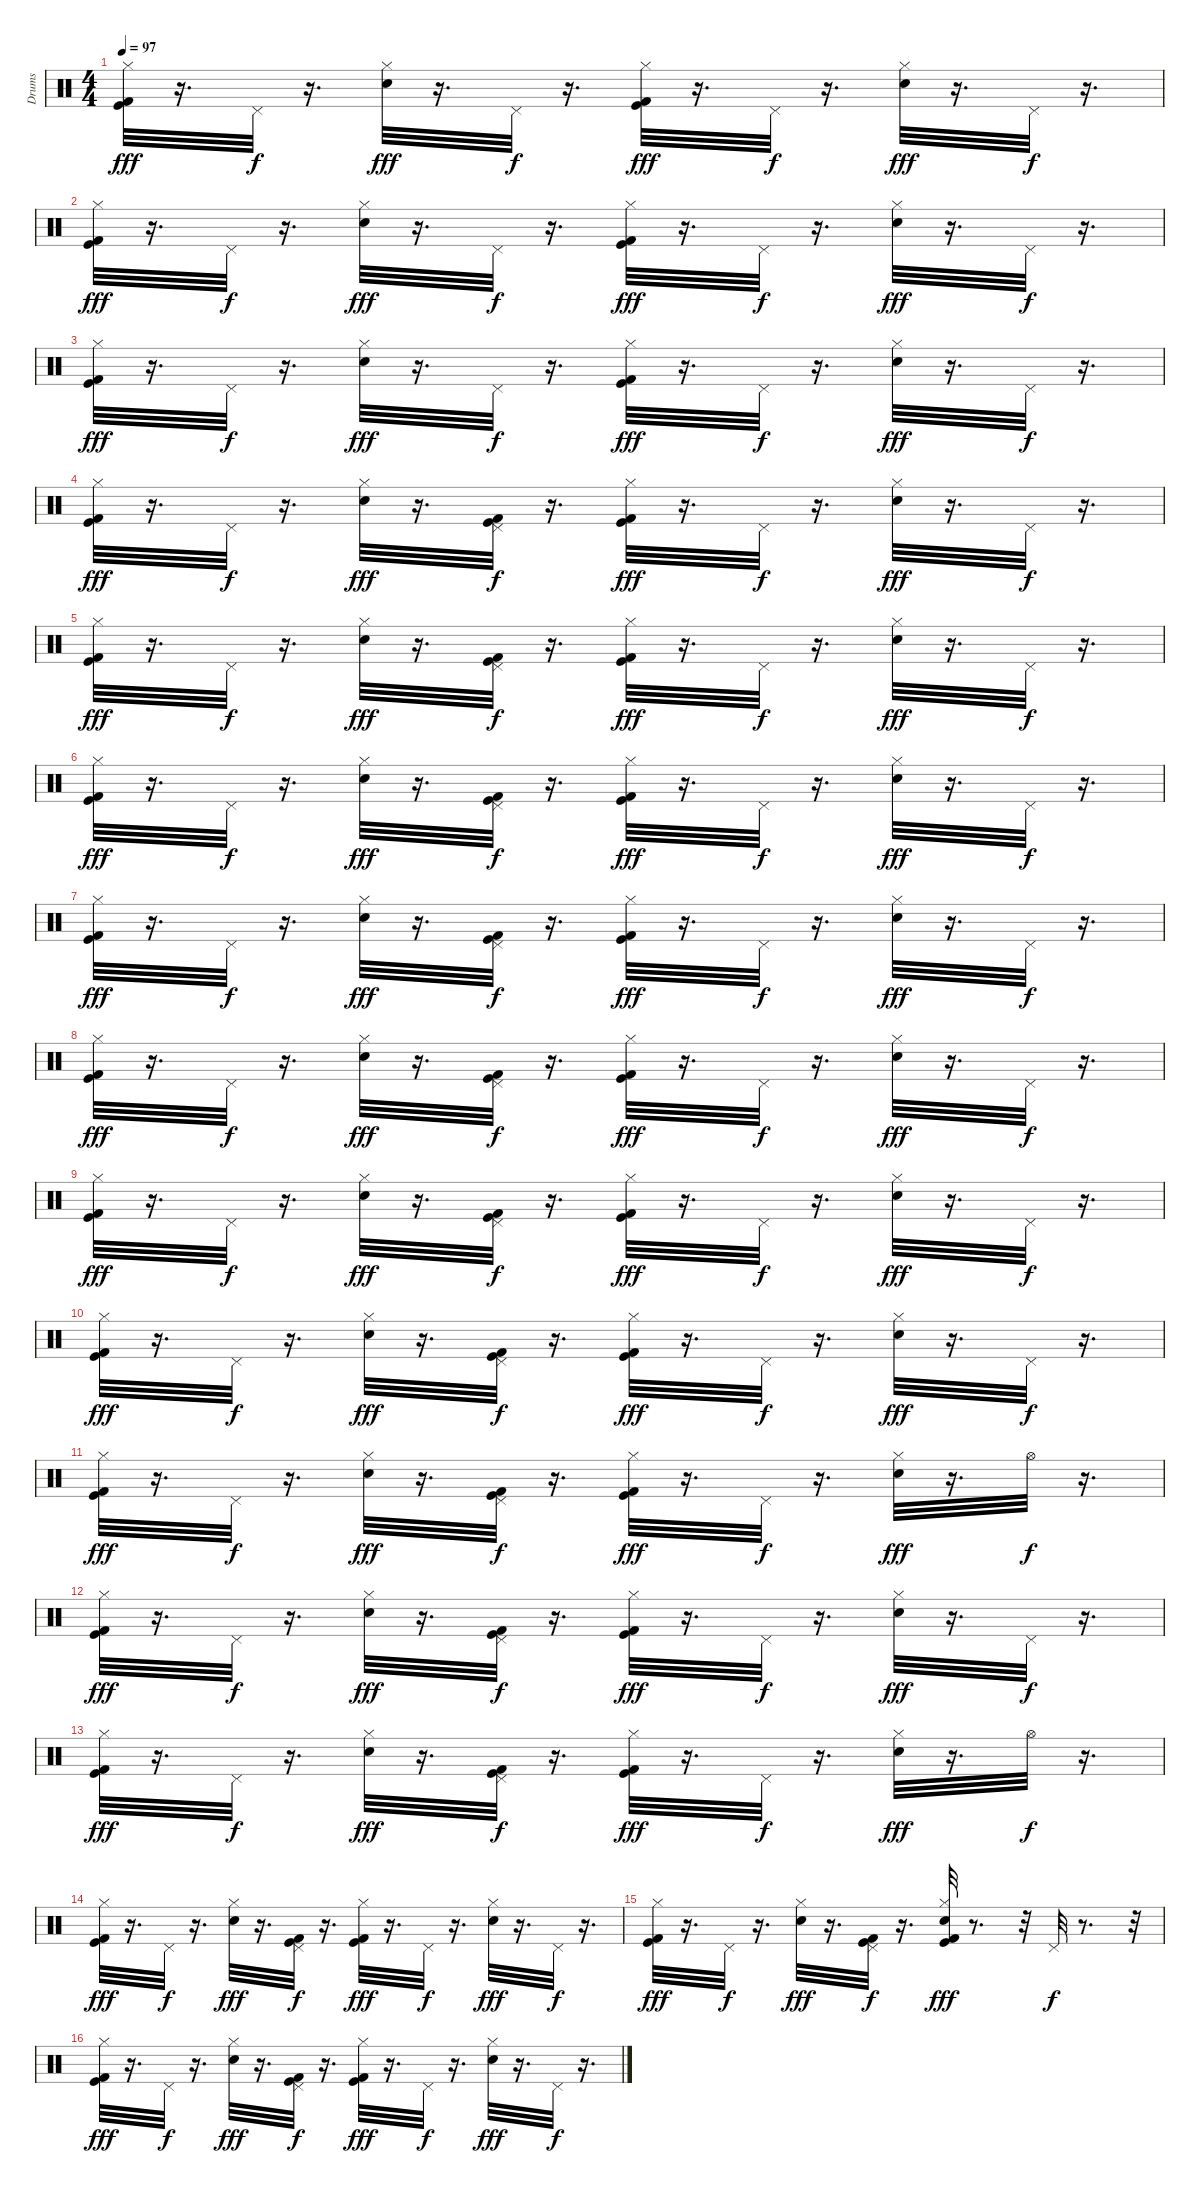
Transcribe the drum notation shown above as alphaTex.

\track ("Drums" "Drums") {instrument percussion}
\staff {score}
\articulation defaults
\ts (4 4)
\tempo 97
\clef neutral
\ks c
("Kick (hit)" "Kick (hit) 2" "Hi-Hat (closed)").32{dy fff} r.16{d} "Pedal Hi-Hat (hit)".32{dy f} r.16{d} ("Hi-Hat (closed)" "Snare (hit) 2").32{dy fff} r.16{d} "Pedal Hi-Hat (hit)".32{dy f} r.16{d} ("Kick (hit)" "Kick (hit) 2" "Hi-Hat (closed)").32{dy fff} r.16{d} "Pedal Hi-Hat (hit)".32{dy f} r.16{d} ("Hi-Hat (closed)" "Snare (hit) 2").32{dy fff} r.16{d} "Pedal Hi-Hat (hit)".32{dy f} r.16{d} |
("Kick (hit)" "Kick (hit) 2" "Hi-Hat (closed)").32{dy fff} r.16{d} "Pedal Hi-Hat (hit)".32{dy f} r.16{d} ("Hi-Hat (closed)" "Snare (hit) 2").32{dy fff} r.16{d} "Pedal Hi-Hat (hit)".32{dy f} r.16{d} ("Kick (hit)" "Kick (hit) 2" "Hi-Hat (closed)").32{dy fff} r.16{d} "Pedal Hi-Hat (hit)".32{dy f} r.16{d} ("Hi-Hat (closed)" "Snare (hit) 2").32{dy fff} r.16{d} "Pedal Hi-Hat (hit)".32{dy f} r.16{d} |
("Kick (hit)" "Kick (hit) 2" "Hi-Hat (closed)").32{dy fff} r.16{d} "Pedal Hi-Hat (hit)".32{dy f} r.16{d} ("Hi-Hat (closed)" "Snare (hit) 2").32{dy fff} r.16{d} "Pedal Hi-Hat (hit)".32{dy f} r.16{d} ("Kick (hit)" "Kick (hit) 2" "Hi-Hat (closed)").32{dy fff} r.16{d} "Pedal Hi-Hat (hit)".32{dy f} r.16{d} ("Hi-Hat (closed)" "Snare (hit) 2").32{dy fff} r.16{d} "Pedal Hi-Hat (hit)".32{dy f} r.16{d} |
("Kick (hit)" "Kick (hit) 2" "Hi-Hat (closed)").32{dy fff} r.16{d} "Pedal Hi-Hat (hit)".32{dy f} r.16{d} ("Hi-Hat (closed)" "Snare (hit) 2").32{dy fff} r.16{d} ("Kick (hit) 2" "Kick (hit)" "Pedal Hi-Hat (hit)").32{dy f} r.16{d} ("Kick (hit)" "Kick (hit) 2" "Hi-Hat (closed)").32{dy fff} r.16{d} "Pedal Hi-Hat (hit)".32{dy f} r.16{d} ("Hi-Hat (closed)" "Snare (hit) 2").32{dy fff} r.16{d} "Pedal Hi-Hat (hit)".32{dy f} r.16{d} |
("Kick (hit)" "Kick (hit) 2" "Hi-Hat (closed)").32{dy fff} r.16{d} "Pedal Hi-Hat (hit)".32{dy f} r.16{d} ("Hi-Hat (closed)" "Snare (hit) 2").32{dy fff} r.16{d} ("Kick (hit) 2" "Kick (hit)" "Pedal Hi-Hat (hit)").32{dy f} r.16{d} ("Kick (hit)" "Kick (hit) 2" "Hi-Hat (closed)").32{dy fff} r.16{d} "Pedal Hi-Hat (hit)".32{dy f} r.16{d} ("Hi-Hat (closed)" "Snare (hit) 2").32{dy fff} r.16{d} "Pedal Hi-Hat (hit)".32{dy f} r.16{d} |
("Kick (hit)" "Kick (hit) 2" "Hi-Hat (closed)").32{dy fff} r.16{d} "Pedal Hi-Hat (hit)".32{dy f} r.16{d} ("Hi-Hat (closed)" "Snare (hit) 2").32{dy fff} r.16{d} ("Kick (hit) 2" "Kick (hit)" "Pedal Hi-Hat (hit)").32{dy f} r.16{d} ("Kick (hit)" "Kick (hit) 2" "Hi-Hat (closed)").32{dy fff} r.16{d} "Pedal Hi-Hat (hit)".32{dy f} r.16{d} ("Hi-Hat (closed)" "Snare (hit) 2").32{dy fff} r.16{d} "Pedal Hi-Hat (hit)".32{dy f} r.16{d} |
("Kick (hit)" "Kick (hit) 2" "Hi-Hat (closed)").32{dy fff} r.16{d} "Pedal Hi-Hat (hit)".32{dy f} r.16{d} ("Hi-Hat (closed)" "Snare (hit) 2").32{dy fff} r.16{d} ("Kick (hit) 2" "Kick (hit)" "Pedal Hi-Hat (hit)").32{dy f} r.16{d} ("Kick (hit)" "Kick (hit) 2" "Hi-Hat (closed)").32{dy fff} r.16{d} "Pedal Hi-Hat (hit)".32{dy f} r.16{d} ("Hi-Hat (closed)" "Snare (hit) 2").32{dy fff} r.16{d} "Pedal Hi-Hat (hit)".32{dy f} r.16{d} |
("Kick (hit)" "Kick (hit) 2" "Hi-Hat (closed)").32{dy fff} r.16{d} "Pedal Hi-Hat (hit)".32{dy f} r.16{d} ("Hi-Hat (closed)" "Snare (hit) 2").32{dy fff} r.16{d} ("Kick (hit) 2" "Kick (hit)" "Pedal Hi-Hat (hit)").32{dy f} r.16{d} ("Kick (hit)" "Kick (hit) 2" "Hi-Hat (closed)").32{dy fff} r.16{d} "Pedal Hi-Hat (hit)".32{dy f} r.16{d} ("Hi-Hat (closed)" "Snare (hit) 2").32{dy fff} r.16{d} "Pedal Hi-Hat (hit)".32{dy f} r.16{d} |
("Kick (hit)" "Kick (hit) 2" "Hi-Hat (closed)").32{dy fff} r.16{d} "Pedal Hi-Hat (hit)".32{dy f} r.16{d} ("Hi-Hat (closed)" "Snare (hit) 2").32{dy fff} r.16{d} ("Kick (hit) 2" "Kick (hit)" "Pedal Hi-Hat (hit)").32{dy f} r.16{d} ("Kick (hit)" "Kick (hit) 2" "Hi-Hat (closed)").32{dy fff} r.16{d} "Pedal Hi-Hat (hit)".32{dy f} r.16{d} ("Hi-Hat (closed)" "Snare (hit) 2").32{dy fff} r.16{d} "Pedal Hi-Hat (hit)".32{dy f} r.16{d} |
("Kick (hit)" "Kick (hit) 2" "Hi-Hat (closed)").32{dy fff} r.16{d} "Pedal Hi-Hat (hit)".32{dy f} r.16{d} ("Hi-Hat (closed)" "Snare (hit) 2").32{dy fff} r.16{d} ("Kick (hit) 2" "Kick (hit)" "Pedal Hi-Hat (hit)").32{dy f} r.16{d} ("Kick (hit)" "Kick (hit) 2" "Hi-Hat (closed)").32{dy fff} r.16{d} "Pedal Hi-Hat (hit)".32{dy f} r.16{d} ("Hi-Hat (closed)" "Snare (hit) 2").32{dy fff} r.16{d} "Pedal Hi-Hat (hit)".32{dy f} r.16{d} |
("Kick (hit)" "Kick (hit) 2" "Hi-Hat (closed)").32{dy fff} r.16{d} "Pedal Hi-Hat (hit)".32{dy f} r.16{d} ("Hi-Hat (closed)" "Snare (hit) 2").32{dy fff} r.16{d} ("Kick (hit) 2" "Kick (hit)" "Pedal Hi-Hat (hit)").32{dy f} r.16{d} ("Kick (hit)" "Kick (hit) 2" "Hi-Hat (closed)").32{dy fff} r.16{d} "Pedal Hi-Hat (hit)".32{dy f} r.16{d} ("Hi-Hat (closed)" "Snare (hit) 2").32{dy fff} r.16{d} "Hi-Hat (open)".32{dy f} r.16{d} |
("Kick (hit)" "Kick (hit) 2" "Hi-Hat (closed)").32{dy fff} r.16{d} "Pedal Hi-Hat (hit)".32{dy f} r.16{d} ("Hi-Hat (closed)" "Snare (hit) 2").32{dy fff} r.16{d} ("Kick (hit) 2" "Kick (hit)" "Pedal Hi-Hat (hit)").32{dy f} r.16{d} ("Kick (hit)" "Kick (hit) 2" "Hi-Hat (closed)").32{dy fff} r.16{d} "Pedal Hi-Hat (hit)".32{dy f} r.16{d} ("Hi-Hat (closed)" "Snare (hit) 2").32{dy fff} r.16{d} "Pedal Hi-Hat (hit)".32{dy f} r.16{d} |
("Kick (hit)" "Kick (hit) 2" "Hi-Hat (closed)").32{dy fff} r.16{d} "Pedal Hi-Hat (hit)".32{dy f} r.16{d} ("Hi-Hat (closed)" "Snare (hit) 2").32{dy fff} r.16{d} ("Kick (hit) 2" "Kick (hit)" "Pedal Hi-Hat (hit)").32{dy f} r.16{d} ("Kick (hit)" "Kick (hit) 2" "Hi-Hat (closed)").32{dy fff} r.16{d} "Pedal Hi-Hat (hit)".32{dy f} r.16{d} ("Hi-Hat (closed)" "Snare (hit) 2").32{dy fff} r.16{d} "Hi-Hat (open)".32{dy f} r.16{d} |
("Kick (hit)" "Kick (hit) 2" "Hi-Hat (closed)").32{dy fff} r.16{d} "Pedal Hi-Hat (hit)".32{dy f} r.16{d} ("Hi-Hat (closed)" "Snare (hit) 2").32{dy fff} r.16{d} ("Kick (hit) 2" "Kick (hit)" "Pedal Hi-Hat (hit)").32{dy f} r.16{d} ("Kick (hit)" "Kick (hit) 2" "Hi-Hat (closed)").32{dy fff} r.16{d} "Pedal Hi-Hat (hit)".32{dy f} r.16{d} ("Hi-Hat (closed)" "Snare (hit) 2").32{dy fff} r.16{d} "Pedal Hi-Hat (hit)".32{dy f} r.16{d} |
("Kick (hit)" "Kick (hit) 2" "Hi-Hat (closed)").32{dy fff} r.16{d} "Pedal Hi-Hat (hit)".32{dy f} r.16{d} ("Hi-Hat (closed)" "Snare (hit) 2").32{dy fff} r.16{d} ("Kick (hit) 2" "Kick (hit)" "Pedal Hi-Hat (hit)").32{dy f} r.16{d} ("Snare (hit) 2" "Kick (hit)" "Kick (hit) 2" "Hi-Hat (closed)").32{dy fff} r.8{d} r.32 "Pedal Hi-Hat (hit)".32{dy f} r.8{d} r.32 |
("Kick (hit)" "Kick (hit) 2" "Hi-Hat (closed)").32{dy fff} r.16{d} "Pedal Hi-Hat (hit)".32{dy f} r.16{d} ("Hi-Hat (closed)" "Snare (hit) 2").32{dy fff} r.16{d} ("Kick (hit) 2" "Kick (hit)" "Pedal Hi-Hat (hit)").32{dy f} r.16{d} ("Kick (hit)" "Kick (hit) 2" "Hi-Hat (closed)").32{dy fff} r.16{d} "Pedal Hi-Hat (hit)".32{dy f} r.16{d} ("Hi-Hat (closed)" "Snare (hit) 2").32{dy fff} r.16{d} "Pedal Hi-Hat (hit)".32{dy f} r.16{d}
